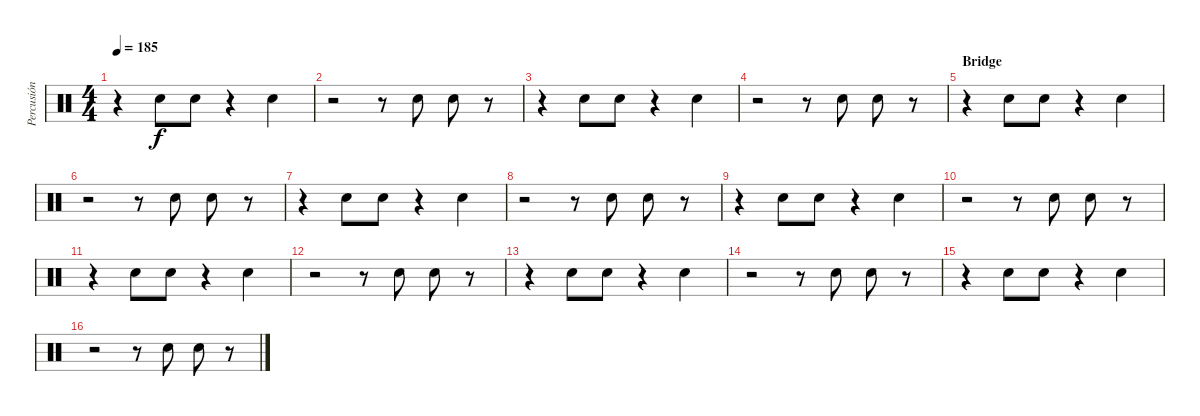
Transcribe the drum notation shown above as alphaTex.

\track ("Percusión" "Percusión") {instrument percussion}
\staff {score}
\articulation defaults
\ts (4 4)
\tempo 185
\clef neutral
\ks c
r.4{dy f} "Hand Clap (hit)".8 "Hand Clap (hit)".8 r.4 "Hand Clap (hit)".4 |
r.2 r.8 "Hand Clap (hit)".8 "Hand Clap (hit)".8 r.8 |
r.4 "Hand Clap (hit)".8 "Hand Clap (hit)".8 r.4 "Hand Clap (hit)".4 |
r.2 r.8 "Hand Clap (hit)".8 "Hand Clap (hit)".8 r.8 |
\section ("" "Bridge")
r.4 "Hand Clap (hit)".8 "Hand Clap (hit)".8 r.4 "Hand Clap (hit)".4 |
r.2 r.8 "Hand Clap (hit)".8 "Hand Clap (hit)".8 r.8 |
r.4 "Hand Clap (hit)".8 "Hand Clap (hit)".8 r.4 "Hand Clap (hit)".4 |
r.2 r.8 "Hand Clap (hit)".8 "Hand Clap (hit)".8 r.8 |
r.4 "Hand Clap (hit)".8 "Hand Clap (hit)".8 r.4 "Hand Clap (hit)".4 |
r.2 r.8 "Hand Clap (hit)".8 "Hand Clap (hit)".8 r.8 |
r.4 "Hand Clap (hit)".8 "Hand Clap (hit)".8 r.4 "Hand Clap (hit)".4 |
r.2 r.8 "Hand Clap (hit)".8 "Hand Clap (hit)".8 r.8 |
r.4 "Hand Clap (hit)".8 "Hand Clap (hit)".8 r.4 "Hand Clap (hit)".4 |
r.2 r.8 "Hand Clap (hit)".8 "Hand Clap (hit)".8 r.8 |
r.4 "Hand Clap (hit)".8 "Hand Clap (hit)".8 r.4 "Hand Clap (hit)".4 |
r.2 r.8 "Hand Clap (hit)".8 "Hand Clap (hit)".8 r.8
